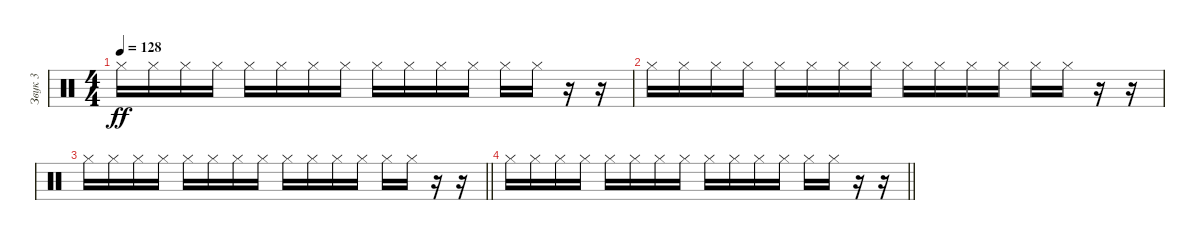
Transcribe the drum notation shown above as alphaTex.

\track ("Звук 3" "Звук 3") {instrument percussion}
\staff {score}
\articulation defaults
\ts (4 4)
\tempo 128
\clef neutral
\ks c "Hi-Hat (closed)".16{dy ff} "Hi-Hat (closed)".16 "Hi-Hat (closed)".16 "Hi-Hat (closed)".16 "Hi-Hat (closed)".16 "Hi-Hat (closed)".16 "Hi-Hat (closed)".16 "Hi-Hat (closed)".16 "Hi-Hat (closed)".16 "Hi-Hat (closed)".16 "Hi-Hat (closed)".16 "Hi-Hat (closed)".16 "Hi-Hat (closed)".16 "Hi-Hat (closed)".16
r.16 r.16 |
"Hi-Hat (closed)".16 "Hi-Hat (closed)".16 "Hi-Hat (closed)".16 "Hi-Hat (closed)".16 "Hi-Hat (closed)".16 "Hi-Hat (closed)".16 "Hi-Hat (closed)".16 "Hi-Hat (closed)".16 "Hi-Hat (closed)".16 "Hi-Hat (closed)".16 "Hi-Hat (closed)".16 "Hi-Hat (closed)".16 "Hi-Hat (closed)".16 "Hi-Hat (closed)".16 r.16 r.16 |
\barLineRight lightlight "Hi-Hat (closed)".16 "Hi-Hat (closed)".16 "Hi-Hat (closed)".16 "Hi-Hat (closed)".16 "Hi-Hat (closed)".16 "Hi-Hat (closed)".16 "Hi-Hat (closed)".16 "Hi-Hat (closed)".16 "Hi-Hat (closed)".16 "Hi-Hat (closed)".16 "Hi-Hat (closed)".16 "Hi-Hat (closed)".16 "Hi-Hat (closed)".16 "Hi-Hat (closed)".16
r.16 r.16 |
\barLineRight lightlight "Hi-Hat (closed)".16 "Hi-Hat (closed)".16 "Hi-Hat (closed)".16 "Hi-Hat (closed)".16 "Hi-Hat (closed)".16 "Hi-Hat (closed)".16 "Hi-Hat (closed)".16 "Hi-Hat (closed)".16 "Hi-Hat (closed)".16 "Hi-Hat (closed)".16 "Hi-Hat (closed)".16 "Hi-Hat (closed)".16 "Hi-Hat (closed)".16 "Hi-Hat (closed)".16
r.16 r.16
